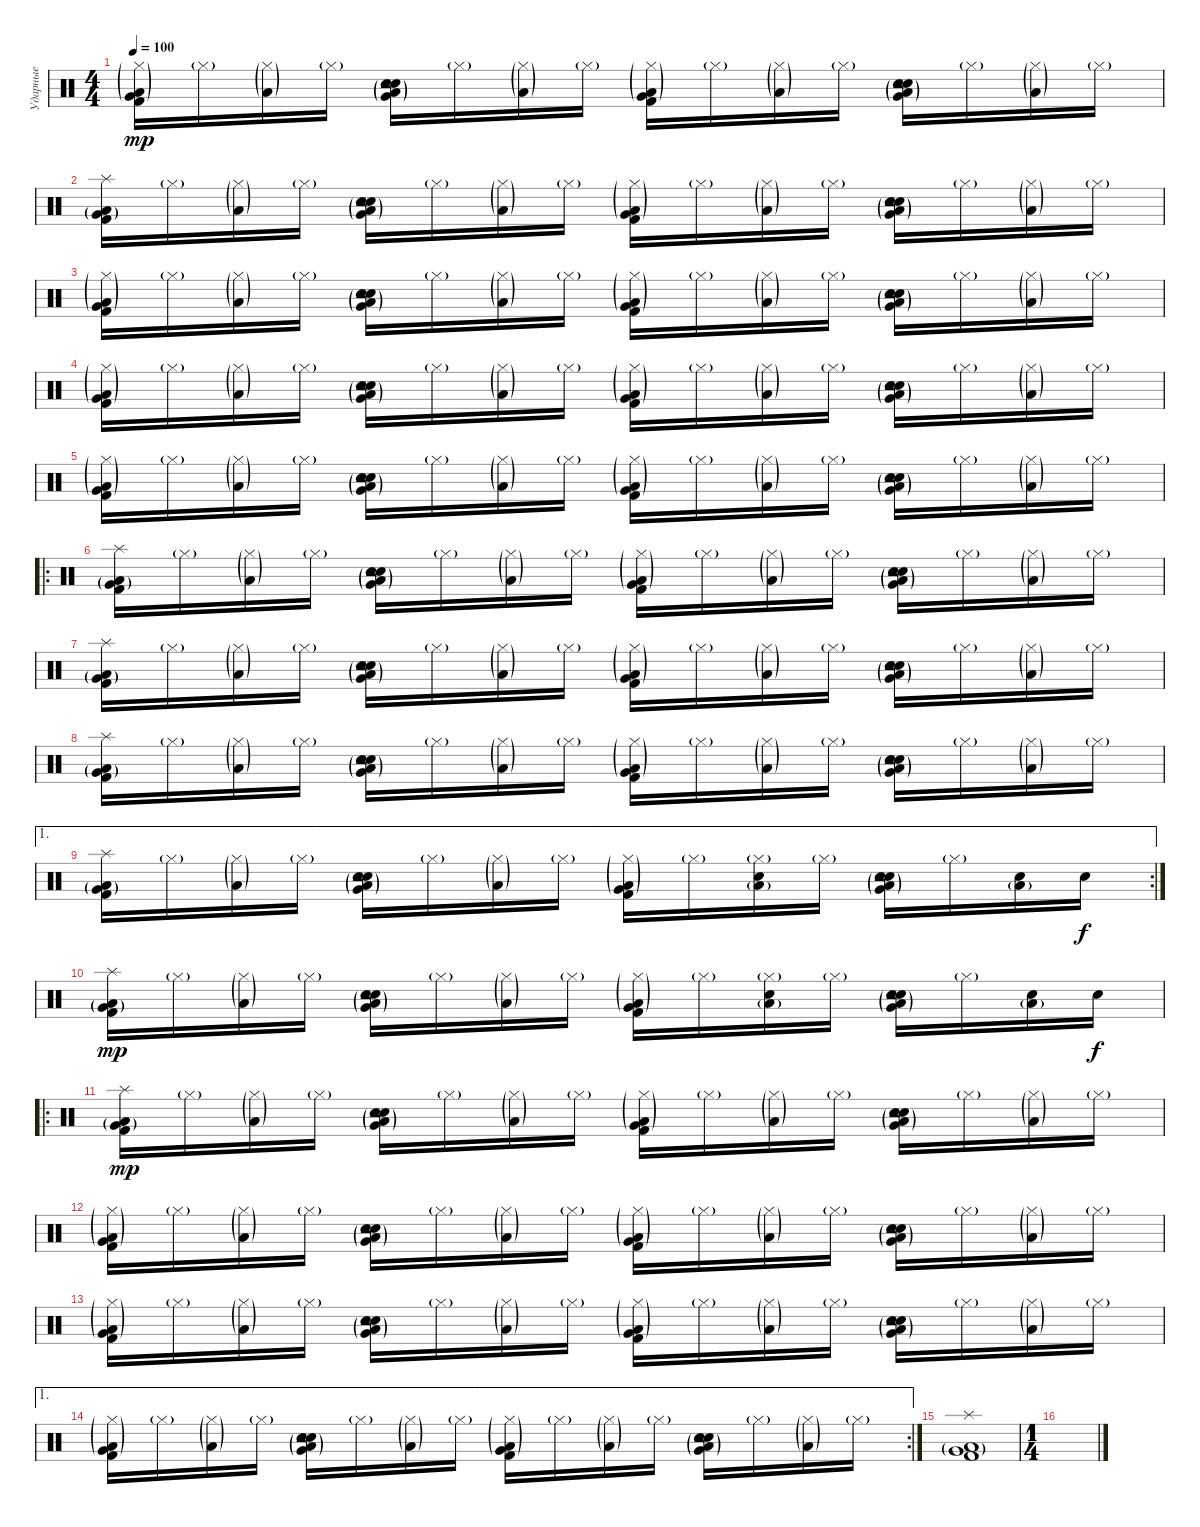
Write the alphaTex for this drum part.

\track ("Ударные" "Ударные") {instrument percussion}
\staff {score}
\articulation defaults
\ts (4 4)
\tempo 100
\clef neutral
\ks c
("Kick (hit) 2" "Very Low Tom (hit)"{g} "Hi-Hat (closed)"{g} "Low Floor Tom (hit)"{g}).16{dy mp} "Hi-Hat (closed)"{g}.16 ("Low Floor Tom (hit)"{g} "Hi-Hat (closed)"{g}).16 "Hi-Hat (closed)"{g}.16 ("Hand Clap (hit)" "Snare (hit) 2" "Very Low Tom (hit)"{g} "Tambourine (hit)"{g} "Low Floor Tom (hit)"{g}).16 "Hi-Hat (closed)"{g}.16 ("Low Floor Tom (hit)"{g} "Hi-Hat (closed)"{g}).16 "Hi-Hat (closed)"{g}.16 ("Kick (hit) 2" "Very Low Tom (hit)"{g} "Hi-Hat (closed)"{g} "Low Floor Tom (hit)"{g}).16 "Hi-Hat (closed)"{g}.16 ("Low Floor Tom (hit)"{g} "Hi-Hat (closed)"{g}).16 "Hi-Hat (closed)"{g}.16 ("Hand Clap (hit)" "Snare (hit) 2" "Very Low Tom (hit)"{g} "Tambourine (hit)"{g} "Low Floor Tom (hit)"{g}).16 "Hi-Hat (closed)"{g}.16 ("Low Floor Tom (hit)"{g} "Hi-Hat (closed)"{g}).16 "Hi-Hat (closed)"{g}.16 |
("Splash (hit)" "Kick (hit) 2" "Very Low Tom (hit)"{g} "Low Floor Tom (hit)"{g}).16 "Hi-Hat (closed)"{g}.16 ("Low Floor Tom (hit)"{g} "Hi-Hat (closed)"{g}).16 "Hi-Hat (closed)"{g}.16 ("Hand Clap (hit)" "Snare (hit) 2" "Very Low Tom (hit)"{g} "Tambourine (hit)"{g} "Low Floor Tom (hit)"{g}).16 "Hi-Hat (closed)"{g}.16 ("Low Floor Tom (hit)"{g} "Hi-Hat (closed)"{g}).16 "Hi-Hat (closed)"{g}.16 ("Kick (hit) 2" "Very Low Tom (hit)"{g} "Hi-Hat (closed)"{g} "Low Floor Tom (hit)"{g}).16 "Hi-Hat (closed)"{g}.16 ("Low Floor Tom (hit)"{g} "Hi-Hat (closed)"{g}).16 "Hi-Hat (closed)"{g}.16 ("Hand Clap (hit)" "Snare (hit) 2" "Very Low Tom (hit)"{g} "Tambourine (hit)"{g} "Low Floor Tom (hit)"{g}).16 "Hi-Hat (closed)"{g}.16 ("Low Floor Tom (hit)"{g} "Hi-Hat (closed)"{g}).16 "Hi-Hat (closed)"{g}.16 |
("Kick (hit) 2" "Very Low Tom (hit)"{g} "Hi-Hat (closed)"{g} "Low Floor Tom (hit)"{g}).16 "Hi-Hat (closed)"{g}.16 ("Low Floor Tom (hit)"{g} "Hi-Hat (closed)"{g}).16 "Hi-Hat (closed)"{g}.16 ("Hand Clap (hit)" "Snare (hit) 2" "Very Low Tom (hit)"{g} "Tambourine (hit)"{g} "Low Floor Tom (hit)"{g}).16 "Hi-Hat (closed)"{g}.16 ("Low Floor Tom (hit)"{g} "Hi-Hat (closed)"{g}).16 "Hi-Hat (closed)"{g}.16 ("Kick (hit) 2" "Very Low Tom (hit)"{g} "Hi-Hat (closed)"{g} "Low Floor Tom (hit)"{g}).16 "Hi-Hat (closed)"{g}.16 ("Low Floor Tom (hit)"{g} "Hi-Hat (closed)"{g}).16 "Hi-Hat (closed)"{g}.16 ("Hand Clap (hit)" "Snare (hit) 2" "Very Low Tom (hit)"{g} "Tambourine (hit)"{g} "Low Floor Tom (hit)"{g}).16 "Hi-Hat (closed)"{g}.16 ("Low Floor Tom (hit)"{g} "Hi-Hat (closed)"{g}).16 "Hi-Hat (closed)"{g}.16 |
("Kick (hit) 2" "Very Low Tom (hit)"{g} "Hi-Hat (closed)"{g} "Low Floor Tom (hit)"{g}).16 "Hi-Hat (closed)"{g}.16 ("Low Floor Tom (hit)"{g} "Hi-Hat (closed)"{g}).16 "Hi-Hat (closed)"{g}.16 ("Hand Clap (hit)" "Snare (hit) 2" "Very Low Tom (hit)"{g} "Tambourine (hit)"{g} "Low Floor Tom (hit)"{g}).16 "Hi-Hat (closed)"{g}.16 ("Low Floor Tom (hit)"{g} "Hi-Hat (closed)"{g}).16 "Hi-Hat (closed)"{g}.16 ("Kick (hit) 2" "Very Low Tom (hit)"{g} "Hi-Hat (closed)"{g} "Low Floor Tom (hit)"{g}).16 "Hi-Hat (closed)"{g}.16 ("Low Floor Tom (hit)"{g} "Hi-Hat (closed)"{g}).16 "Hi-Hat (closed)"{g}.16 ("Hand Clap (hit)" "Snare (hit) 2" "Very Low Tom (hit)"{g} "Tambourine (hit)"{g} "Low Floor Tom (hit)"{g}).16 "Hi-Hat (closed)"{g}.16 ("Low Floor Tom (hit)"{g} "Hi-Hat (closed)"{g}).16 "Hi-Hat (closed)"{g}.16 |
("Kick (hit) 2" "Very Low Tom (hit)"{g} "Hi-Hat (closed)"{g} "Low Floor Tom (hit)"{g}).16 "Hi-Hat (closed)"{g}.16 ("Low Floor Tom (hit)"{g} "Hi-Hat (closed)"{g}).16 "Hi-Hat (closed)"{g}.16 ("Hand Clap (hit)" "Snare (hit) 2" "Very Low Tom (hit)"{g} "Tambourine (hit)"{g} "Low Floor Tom (hit)"{g}).16 "Hi-Hat (closed)"{g}.16 ("Low Floor Tom (hit)"{g} "Hi-Hat (closed)"{g}).16 "Hi-Hat (closed)"{g}.16 ("Kick (hit) 2" "Very Low Tom (hit)"{g} "Hi-Hat (closed)"{g} "Low Floor Tom (hit)"{g}).16 "Hi-Hat (closed)"{g}.16 ("Low Floor Tom (hit)"{g} "Hi-Hat (closed)"{g}).16 "Hi-Hat (closed)"{g}.16 ("Hand Clap (hit)" "Snare (hit) 2" "Very Low Tom (hit)"{g} "Tambourine (hit)"{g} "Low Floor Tom (hit)"{g}).16 "Hi-Hat (closed)"{g}.16 ("Low Floor Tom (hit)"{g} "Hi-Hat (closed)"{g}).16 "Hi-Hat (closed)"{g}.16 |
\ro
("Splash (hit)" "Kick (hit) 2" "Very Low Tom (hit)"{g} "Low Floor Tom (hit)"{g}).16 "Hi-Hat (closed)"{g}.16 ("Low Floor Tom (hit)"{g} "Hi-Hat (closed)"{g}).16 "Hi-Hat (closed)"{g}.16 ("Hand Clap (hit)" "Snare (hit) 2" "Very Low Tom (hit)"{g} "Tambourine (hit)"{g} "Low Floor Tom (hit)"{g}).16 "Hi-Hat (closed)"{g}.16 ("Low Floor Tom (hit)"{g} "Hi-Hat (closed)"{g}).16 "Hi-Hat (closed)"{g}.16 ("Kick (hit) 2" "Very Low Tom (hit)"{g} "Hi-Hat (closed)"{g} "Low Floor Tom (hit)"{g}).16 "Hi-Hat (closed)"{g}.16 ("Low Floor Tom (hit)"{g} "Hi-Hat (closed)"{g}).16 "Hi-Hat (closed)"{g}.16 ("Hand Clap (hit)" "Snare (hit) 2" "Very Low Tom (hit)"{g} "Tambourine (hit)"{g} "Low Floor Tom (hit)"{g}).16 "Hi-Hat (closed)"{g}.16 ("Low Floor Tom (hit)"{g} "Hi-Hat (closed)"{g}).16 "Hi-Hat (closed)"{g}.16 |
("Splash (hit)" "Kick (hit) 2" "Very Low Tom (hit)"{g} "Low Floor Tom (hit)"{g}).16 "Hi-Hat (closed)"{g}.16 ("Low Floor Tom (hit)"{g} "Hi-Hat (closed)"{g}).16 "Hi-Hat (closed)"{g}.16 ("Hand Clap (hit)" "Snare (hit) 2" "Very Low Tom (hit)"{g} "Tambourine (hit)"{g} "Low Floor Tom (hit)"{g}).16 "Hi-Hat (closed)"{g}.16 ("Low Floor Tom (hit)"{g} "Hi-Hat (closed)"{g}).16 "Hi-Hat (closed)"{g}.16 ("Kick (hit) 2" "Very Low Tom (hit)"{g} "Hi-Hat (closed)"{g} "Low Floor Tom (hit)"{g}).16 "Hi-Hat (closed)"{g}.16 ("Low Floor Tom (hit)"{g} "Hi-Hat (closed)"{g}).16 "Hi-Hat (closed)"{g}.16 ("Hand Clap (hit)" "Snare (hit) 2" "Very Low Tom (hit)"{g} "Tambourine (hit)"{g} "Low Floor Tom (hit)"{g}).16 "Hi-Hat (closed)"{g}.16 ("Low Floor Tom (hit)"{g} "Hi-Hat (closed)"{g}).16 "Hi-Hat (closed)"{g}.16 |
("Splash (hit)" "Kick (hit) 2" "Very Low Tom (hit)"{g} "Low Floor Tom (hit)"{g}).16 "Hi-Hat (closed)"{g}.16 ("Low Floor Tom (hit)"{g} "Hi-Hat (closed)"{g}).16 "Hi-Hat (closed)"{g}.16 ("Hand Clap (hit)" "Snare (hit) 2" "Very Low Tom (hit)"{g} "Tambourine (hit)"{g} "Low Floor Tom (hit)"{g}).16 "Hi-Hat (closed)"{g}.16 ("Low Floor Tom (hit)"{g} "Hi-Hat (closed)"{g}).16 "Hi-Hat (closed)"{g}.16 ("Kick (hit) 2" "Very Low Tom (hit)"{g} "Hi-Hat (closed)"{g} "Low Floor Tom (hit)"{g}).16 "Hi-Hat (closed)"{g}.16 ("Low Floor Tom (hit)"{g} "Hi-Hat (closed)"{g}).16 "Hi-Hat (closed)"{g}.16 ("Hand Clap (hit)" "Snare (hit) 2" "Very Low Tom (hit)"{g} "Tambourine (hit)"{g} "Low Floor Tom (hit)"{g}).16 "Hi-Hat (closed)"{g}.16 ("Low Floor Tom (hit)"{g} "Hi-Hat (closed)"{g}).16 "Hi-Hat (closed)"{g}.16 |
\ae 1
\rc 2
("Splash (hit)" "Kick (hit) 2" "Very Low Tom (hit)"{g} "Low Floor Tom (hit)"{g}).16 "Hi-Hat (closed)"{g}.16 ("Low Floor Tom (hit)"{g} "Hi-Hat (closed)"{g}).16 "Hi-Hat (closed)"{g}.16 ("Hand Clap (hit)" "Snare (hit) 2" "Very Low Tom (hit)"{g} "Tambourine (hit)"{g} "Low Floor Tom (hit)"{g}).16 "Hi-Hat (closed)"{g}.16 ("Low Floor Tom (hit)"{g} "Hi-Hat (closed)"{g}).16 "Hi-Hat (closed)"{g}.16 ("Kick (hit) 2" "Very Low Tom (hit)"{g} "Hi-Hat (closed)"{g} "Low Floor Tom (hit)"{g}).16 "Hi-Hat (closed)"{g}.16 ("Hand Clap (hit)" "Low Floor Tom (hit)"{g} "Hi-Hat (closed)"{g}).16 "Hi-Hat (closed)"{g}.16 ("Hand Clap (hit)" "Snare (hit) 2" "Very Low Tom (hit)"{g} "Tambourine (hit)"{g} "Low Floor Tom (hit)"{g}).16 "Hi-Hat (closed)"{g}.16 ("Snare (hit) 2" "Low Floor Tom (hit)"{g}).16 "Snare (hit) 2".16{dy f} |
("Splash (hit)" "Kick (hit) 2" "Very Low Tom (hit)"{g} "Low Floor Tom (hit)"{g}).16{dy mp} "Hi-Hat (closed)"{g}.16 ("Low Floor Tom (hit)"{g} "Hi-Hat (closed)"{g}).16 "Hi-Hat (closed)"{g}.16 ("Hand Clap (hit)" "Snare (hit) 2" "Very Low Tom (hit)"{g} "Tambourine (hit)"{g} "Low Floor Tom (hit)"{g}).16 "Hi-Hat (closed)"{g}.16 ("Low Floor Tom (hit)"{g} "Hi-Hat (closed)"{g}).16 "Hi-Hat (closed)"{g}.16 ("Kick (hit) 2" "Very Low Tom (hit)"{g} "Hi-Hat (closed)"{g} "Low Floor Tom (hit)"{g}).16 "Hi-Hat (closed)"{g}.16 ("Hand Clap (hit)" "Low Floor Tom (hit)"{g} "Hi-Hat (closed)"{g}).16 "Hi-Hat (closed)"{g}.16 ("Hand Clap (hit)" "Snare (hit) 2" "Very Low Tom (hit)"{g} "Tambourine (hit)"{g} "Low Floor Tom (hit)"{g}).16 "Hi-Hat (closed)"{g}.16 ("Snare (hit) 2" "Low Floor Tom (hit)"{g}).16 "Snare (hit) 2".16{dy f} |
\ro
("Splash (hit)" "Kick (hit) 2" "Very Low Tom (hit)"{g} "Low Floor Tom (hit)"{g}).16{dy mp} "Hi-Hat (closed)"{g}.16 ("Low Floor Tom (hit)"{g} "Hi-Hat (closed)"{g}).16 "Hi-Hat (closed)"{g}.16 ("Hand Clap (hit)" "Snare (hit) 2" "Very Low Tom (hit)"{g} "Tambourine (hit)"{g} "Low Floor Tom (hit)"{g}).16 "Hi-Hat (closed)"{g}.16 ("Low Floor Tom (hit)"{g} "Hi-Hat (closed)"{g}).16 "Hi-Hat (closed)"{g}.16 ("Kick (hit) 2" "Very Low Tom (hit)"{g} "Hi-Hat (closed)"{g} "Low Floor Tom (hit)"{g}).16 "Hi-Hat (closed)"{g}.16 ("Low Floor Tom (hit)"{g} "Hi-Hat (closed)"{g}).16 "Hi-Hat (closed)"{g}.16 ("Hand Clap (hit)" "Snare (hit) 2" "Very Low Tom (hit)"{g} "Tambourine (hit)"{g} "Low Floor Tom (hit)"{g}).16 "Hi-Hat (closed)"{g}.16 ("Low Floor Tom (hit)"{g} "Hi-Hat (closed)"{g}).16 "Hi-Hat (closed)"{g}.16 |
("Kick (hit) 2" "Very Low Tom (hit)"{g} "Hi-Hat (closed)"{g} "Low Floor Tom (hit)"{g}).16 "Hi-Hat (closed)"{g}.16 ("Low Floor Tom (hit)"{g} "Hi-Hat (closed)"{g}).16 "Hi-Hat (closed)"{g}.16 ("Hand Clap (hit)" "Snare (hit) 2" "Very Low Tom (hit)"{g} "Tambourine (hit)"{g} "Low Floor Tom (hit)"{g}).16 "Hi-Hat (closed)"{g}.16 ("Low Floor Tom (hit)"{g} "Hi-Hat (closed)"{g}).16 "Hi-Hat (closed)"{g}.16 ("Kick (hit) 2" "Very Low Tom (hit)"{g} "Hi-Hat (closed)"{g} "Low Floor Tom (hit)"{g}).16 "Hi-Hat (closed)"{g}.16 ("Low Floor Tom (hit)"{g} "Hi-Hat (closed)"{g}).16 "Hi-Hat (closed)"{g}.16 ("Hand Clap (hit)" "Snare (hit) 2" "Very Low Tom (hit)"{g} "Tambourine (hit)"{g} "Low Floor Tom (hit)"{g}).16 "Hi-Hat (closed)"{g}.16 ("Low Floor Tom (hit)"{g} "Hi-Hat (closed)"{g}).16 "Hi-Hat (closed)"{g}.16 |
("Kick (hit) 2" "Very Low Tom (hit)"{g} "Hi-Hat (closed)"{g} "Low Floor Tom (hit)"{g}).16 "Hi-Hat (closed)"{g}.16 ("Low Floor Tom (hit)"{g} "Hi-Hat (closed)"{g}).16 "Hi-Hat (closed)"{g}.16 ("Hand Clap (hit)" "Snare (hit) 2" "Very Low Tom (hit)"{g} "Tambourine (hit)"{g} "Low Floor Tom (hit)"{g}).16 "Hi-Hat (closed)"{g}.16 ("Low Floor Tom (hit)"{g} "Hi-Hat (closed)"{g}).16 "Hi-Hat (closed)"{g}.16 ("Kick (hit) 2" "Very Low Tom (hit)"{g} "Hi-Hat (closed)"{g} "Low Floor Tom (hit)"{g}).16 "Hi-Hat (closed)"{g}.16 ("Low Floor Tom (hit)"{g} "Hi-Hat (closed)"{g}).16 "Hi-Hat (closed)"{g}.16 ("Hand Clap (hit)" "Snare (hit) 2" "Very Low Tom (hit)"{g} "Tambourine (hit)"{g} "Low Floor Tom (hit)"{g}).16 "Hi-Hat (closed)"{g}.16 ("Low Floor Tom (hit)"{g} "Hi-Hat (closed)"{g}).16 "Hi-Hat (closed)"{g}.16 |
\ae 1
\rc 2
("Kick (hit) 2" "Very Low Tom (hit)"{g} "Hi-Hat (closed)"{g} "Low Floor Tom (hit)"{g}).16 "Hi-Hat (closed)"{g}.16 ("Low Floor Tom (hit)"{g} "Hi-Hat (closed)"{g}).16 "Hi-Hat (closed)"{g}.16 ("Hand Clap (hit)" "Snare (hit) 2" "Very Low Tom (hit)"{g} "Tambourine (hit)"{g} "Low Floor Tom (hit)"{g}).16 "Hi-Hat (closed)"{g}.16 ("Low Floor Tom (hit)"{g} "Hi-Hat (closed)"{g}).16 "Hi-Hat (closed)"{g}.16 ("Kick (hit) 2" "Very Low Tom (hit)"{g} "Hi-Hat (closed)"{g} "Low Floor Tom (hit)"{g}).16 "Hi-Hat (closed)"{g}.16 ("Low Floor Tom (hit)"{g} "Hi-Hat (closed)"{g}).16 "Hi-Hat (closed)"{g}.16 ("Hand Clap (hit)" "Snare (hit) 2" "Very Low Tom (hit)"{g} "Tambourine (hit)"{g} "Low Floor Tom (hit)"{g}).16 "Hi-Hat (closed)"{g}.16 ("Low Floor Tom (hit)"{g} "Hi-Hat (closed)"{g}).16 "Hi-Hat (closed)"{g}.16 |
("Splash (hit)" "Kick (hit) 2" "Very Low Tom (hit)"{g} "Low Floor Tom (hit)"{g}).1 |
\ts (1 4)
